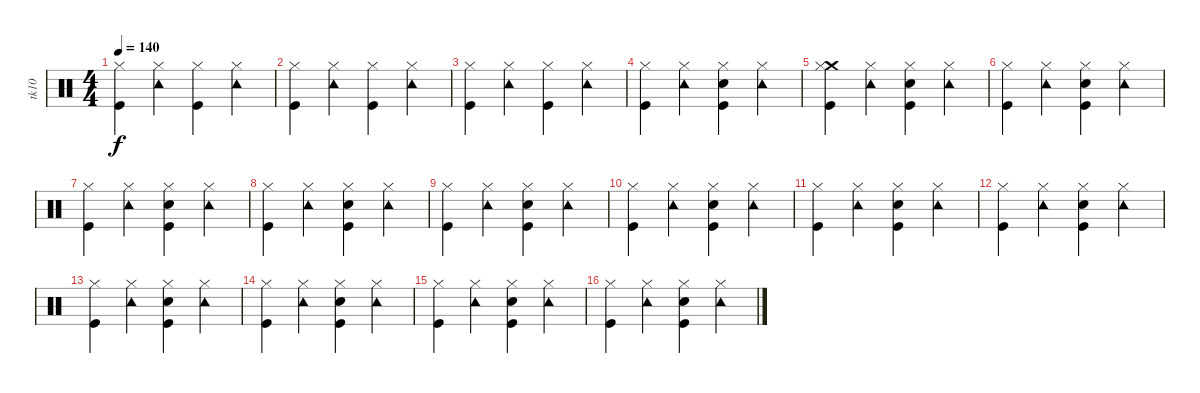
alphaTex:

\track ("tk10" "tk10") {instrument percussion}
\staff {score}
\articulation defaults
\ts (4 4)
\tempo 140
\clef neutral
\ks c
("Hi-Hat (closed)" "Kick (hit)").4{dy f} ("Tambourine (hit)" "Hi-Hat (closed)").4 ("Hi-Hat (closed)" "Kick (hit)").4 ("Hi-Hat (closed)" "Tambourine (hit)").4 |
("Hi-Hat (closed)" "Kick (hit)").4 ("Tambourine (hit)" "Hi-Hat (closed)").4 ("Hi-Hat (closed)" "Kick (hit)").4 ("Hi-Hat (closed)" "Tambourine (hit)").4 |
("Hi-Hat (closed)" "Kick (hit)").4 ("Tambourine (hit)" "Hi-Hat (closed)").4 ("Hi-Hat (closed)" "Kick (hit)").4 ("Hi-Hat (closed)" "Tambourine (hit)").4 |
("Hi-Hat (closed)" "Kick (hit)").4 ("Tambourine (hit)" "Hi-Hat (closed)").4 ("Electric Snare (hit)" "Hi-Hat (closed)" "Kick (hit)").4 ("Hi-Hat (closed)" "Tambourine (hit)").4 |
("Crash medium (hit)" "Hi-Hat (closed)" "Kick (hit)").4 ("Tambourine (hit)" "Hi-Hat (closed)").4 ("Electric Snare (hit)" "Hi-Hat (closed)" "Kick (hit)").4 ("Hi-Hat (closed)" "Tambourine (hit)").4 |
("Hi-Hat (closed)" "Kick (hit)").4 ("Tambourine (hit)" "Hi-Hat (closed)").4 ("Electric Snare (hit)" "Hi-Hat (closed)" "Kick (hit)").4 ("Hi-Hat (closed)" "Tambourine (hit)").4 |
("Hi-Hat (closed)" "Kick (hit)").4 ("Tambourine (hit)" "Hi-Hat (closed)").4 ("Electric Snare (hit)" "Hi-Hat (closed)" "Kick (hit)").4 ("Hi-Hat (closed)" "Tambourine (hit)").4 |
("Hi-Hat (closed)" "Kick (hit)").4 ("Tambourine (hit)" "Hi-Hat (closed)").4 ("Electric Snare (hit)" "Hi-Hat (closed)" "Kick (hit)").4 ("Hi-Hat (closed)" "Tambourine (hit)").4 |
("Hi-Hat (closed)" "Kick (hit)").4 ("Tambourine (hit)" "Hi-Hat (closed)").4 ("Electric Snare (hit)" "Hi-Hat (closed)" "Kick (hit)").4 ("Hi-Hat (closed)" "Tambourine (hit)").4 |
("Hi-Hat (closed)" "Kick (hit)").4 ("Tambourine (hit)" "Hi-Hat (closed)").4 ("Electric Snare (hit)" "Hi-Hat (closed)" "Kick (hit)").4 ("Hi-Hat (closed)" "Tambourine (hit)").4 |
("Hi-Hat (closed)" "Kick (hit)").4 ("Tambourine (hit)" "Hi-Hat (closed)").4 ("Electric Snare (hit)" "Hi-Hat (closed)" "Kick (hit)").4 ("Hi-Hat (closed)" "Tambourine (hit)").4 |
("Hi-Hat (closed)" "Kick (hit)").4 ("Tambourine (hit)" "Hi-Hat (closed)").4 ("Electric Snare (hit)" "Hi-Hat (closed)" "Kick (hit)").4 ("Hi-Hat (closed)" "Tambourine (hit)").4 |
("Hi-Hat (closed)" "Kick (hit)").4 ("Tambourine (hit)" "Hi-Hat (closed)").4 ("Electric Snare (hit)" "Hi-Hat (closed)" "Kick (hit)").4 ("Hi-Hat (closed)" "Tambourine (hit)").4 |
("Hi-Hat (closed)" "Kick (hit)").4 ("Tambourine (hit)" "Hi-Hat (closed)").4 ("Electric Snare (hit)" "Hi-Hat (closed)" "Kick (hit)").4 ("Hi-Hat (closed)" "Tambourine (hit)").4 |
("Hi-Hat (closed)" "Kick (hit)").4 ("Tambourine (hit)" "Hi-Hat (closed)").4 ("Electric Snare (hit)" "Hi-Hat (closed)" "Kick (hit)").4 ("Hi-Hat (closed)" "Tambourine (hit)").4 |
("Hi-Hat (closed)" "Kick (hit)").4 ("Tambourine (hit)" "Hi-Hat (closed)").4 ("Electric Snare (hit)" "Hi-Hat (closed)" "Kick (hit)").4 ("Hi-Hat (closed)" "Tambourine (hit)").4
